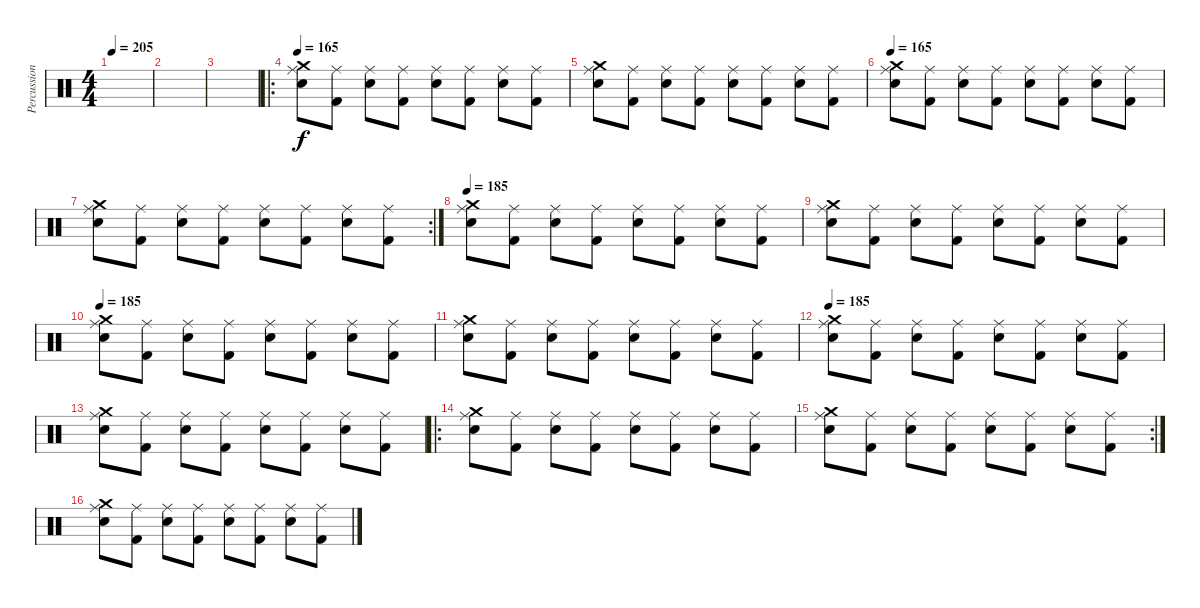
\track ("Percussion" "Percussion") {instrument percussion}
\staff {score}
\articulation defaults
\ts (4 4)
\tempo 205
\clef neutral
\ks c
|
|
|
\ro
\tempo 165
("Crash medium (hit)" "Snare (hit) 2" "Ride (middle)").8 ("Kick (hit) 2" "Ride (middle)").8 ("Snare (hit) 2" "Ride (middle)").8 ("Kick (hit) 2" "Ride (middle)").8 ("Snare (hit) 2" "Ride (middle)").8 ("Kick (hit) 2" "Ride (middle)").8 ("Snare (hit) 2" "Ride (middle)").8 ("Kick (hit) 2" "Ride (middle)").8 |
("Crash medium (hit)" "Snare (hit) 2" "Ride (middle)").8 ("Kick (hit) 2" "Ride (middle)").8 ("Snare (hit) 2" "Ride (middle)").8 ("Kick (hit) 2" "Ride (middle)").8 ("Snare (hit) 2" "Ride (middle)").8 ("Kick (hit) 2" "Ride (middle)").8 ("Snare (hit) 2" "Ride (middle)").8 ("Kick (hit) 2" "Ride (middle)").8 |
\tempo 165
("Crash medium (hit)" "Snare (hit) 2" "Ride (middle)").8 ("Kick (hit) 2" "Ride (middle)").8 ("Snare (hit) 2" "Ride (middle)").8 ("Kick (hit) 2" "Ride (middle)").8 ("Snare (hit) 2" "Ride (middle)").8 ("Kick (hit) 2" "Ride (middle)").8 ("Snare (hit) 2" "Ride (middle)").8 ("Kick (hit) 2" "Ride (middle)").8 |
\rc 2
("Crash medium (hit)" "Snare (hit) 2" "Ride (middle)").8 ("Kick (hit) 2" "Ride (middle)").8 ("Snare (hit) 2" "Ride (middle)").8 ("Kick (hit) 2" "Ride (middle)").8 ("Snare (hit) 2" "Ride (middle)").8 ("Kick (hit) 2" "Ride (middle)").8 ("Snare (hit) 2" "Ride (middle)").8 ("Kick (hit) 2" "Ride (middle)").8 |
\tempo 185
("Crash medium (hit)" "Snare (hit) 2" "Ride (middle)").8 ("Kick (hit) 2" "Ride (middle)").8 ("Snare (hit) 2" "Ride (middle)").8 ("Kick (hit) 2" "Ride (middle)").8 ("Snare (hit) 2" "Ride (middle)").8 ("Kick (hit) 2" "Ride (middle)").8 ("Snare (hit) 2" "Ride (middle)").8 ("Kick (hit) 2" "Ride (middle)").8 |
("Crash medium (hit)" "Snare (hit) 2" "Ride (middle)").8 ("Kick (hit) 2" "Ride (middle)").8 ("Snare (hit) 2" "Ride (middle)").8 ("Kick (hit) 2" "Ride (middle)").8 ("Snare (hit) 2" "Ride (middle)").8 ("Kick (hit) 2" "Ride (middle)").8 ("Snare (hit) 2" "Ride (middle)").8 ("Kick (hit) 2" "Ride (middle)").8 |
\tempo 185
("Crash medium (hit)" "Snare (hit) 2" "Ride (middle)").8 ("Kick (hit) 2" "Ride (middle)").8 ("Snare (hit) 2" "Ride (middle)").8 ("Kick (hit) 2" "Ride (middle)").8 ("Snare (hit) 2" "Ride (middle)").8 ("Kick (hit) 2" "Ride (middle)").8 ("Snare (hit) 2" "Ride (middle)").8 ("Kick (hit) 2" "Ride (middle)").8 |
("Crash medium (hit)" "Snare (hit) 2" "Ride (middle)").8 ("Kick (hit) 2" "Ride (middle)").8 ("Snare (hit) 2" "Ride (middle)").8 ("Kick (hit) 2" "Ride (middle)").8 ("Snare (hit) 2" "Ride (middle)").8 ("Kick (hit) 2" "Ride (middle)").8 ("Snare (hit) 2" "Ride (middle)").8 ("Kick (hit) 2" "Ride (middle)").8 |
\tempo 185
("Crash medium (hit)" "Snare (hit) 2" "Ride (middle)").8 ("Kick (hit) 2" "Ride (middle)").8 ("Snare (hit) 2" "Ride (middle)").8 ("Kick (hit) 2" "Ride (middle)").8 ("Snare (hit) 2" "Ride (middle)").8 ("Kick (hit) 2" "Ride (middle)").8 ("Snare (hit) 2" "Ride (middle)").8 ("Kick (hit) 2" "Ride (middle)").8 |
("Crash medium (hit)" "Snare (hit) 2" "Ride (middle)").8 ("Kick (hit) 2" "Ride (middle)").8 ("Snare (hit) 2" "Ride (middle)").8 ("Kick (hit) 2" "Ride (middle)").8 ("Snare (hit) 2" "Ride (middle)").8 ("Kick (hit) 2" "Ride (middle)").8 ("Snare (hit) 2" "Ride (middle)").8 ("Kick (hit) 2" "Ride (middle)").8 |
\ro
("Crash medium (hit)" "Snare (hit) 2" "Ride (middle)").8 ("Kick (hit) 2" "Ride (middle)").8 ("Snare (hit) 2" "Ride (middle)").8 ("Kick (hit) 2" "Ride (middle)").8 ("Snare (hit) 2" "Ride (middle)").8 ("Kick (hit) 2" "Ride (middle)").8 ("Snare (hit) 2" "Ride (middle)").8 ("Kick (hit) 2" "Ride (middle)").8 |
\rc 2
("Crash medium (hit)" "Snare (hit) 2" "Ride (middle)").8 ("Kick (hit) 2" "Ride (middle)").8 ("Snare (hit) 2" "Ride (middle)").8 ("Kick (hit) 2" "Ride (middle)").8 ("Snare (hit) 2" "Ride (middle)").8 ("Kick (hit) 2" "Ride (middle)").8 ("Snare (hit) 2" "Ride (middle)").8 ("Kick (hit) 2" "Ride (middle)").8 |
("Crash medium (hit)" "Snare (hit) 2" "Ride (middle)").8 ("Kick (hit) 2" "Ride (middle)").8 ("Snare (hit) 2" "Ride (middle)").8 ("Kick (hit) 2" "Ride (middle)").8 ("Snare (hit) 2" "Ride (middle)").8 ("Kick (hit) 2" "Ride (middle)").8 ("Snare (hit) 2" "Ride (middle)").8 ("Kick (hit) 2" "Ride (middle)").8
